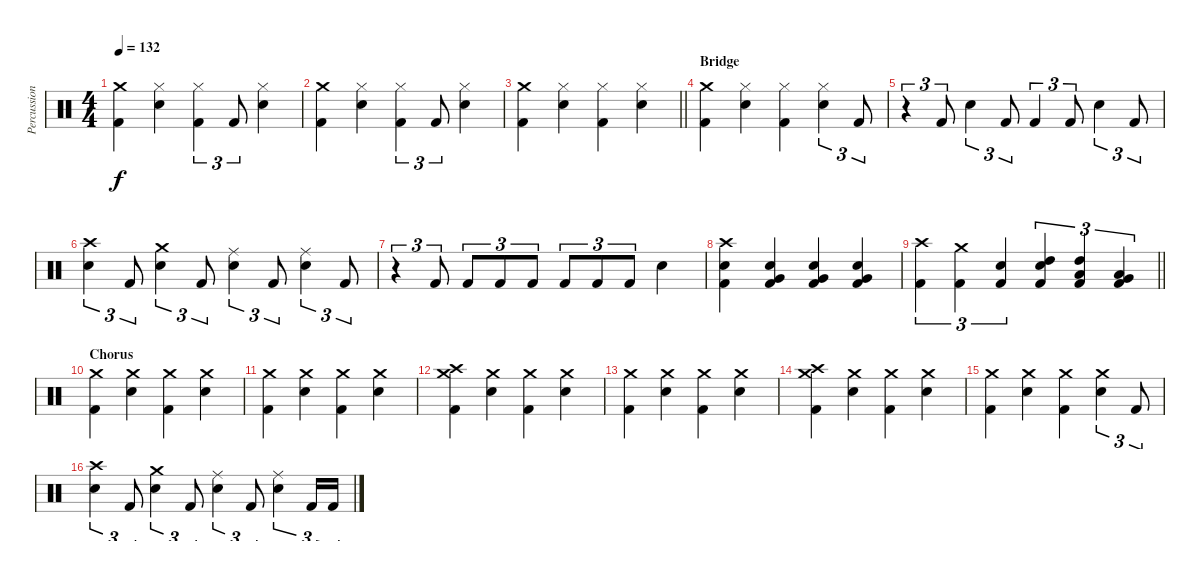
\track ("Percussion" "Percussion") {instrument percussion}
\staff {score}
\articulation defaults
\ts (4 4)
\tempo 132
\clef neutral
\ks c
("Crash medium (hit)" "Kick (hit) 2").4{dy f} ("Hi-Hat (closed)" "Snare (hit) 2").4 ("Hi-Hat (closed)" "Kick (hit) 2").4{tu (3 2)} "Kick (hit) 2".8{tu (3 2)} ("Hi-Hat (closed)" "Snare (hit) 2").4 |
("Crash medium (hit)" "Kick (hit) 2").4 ("Hi-Hat (closed)" "Snare (hit) 2").4 ("Hi-Hat (closed)" "Kick (hit) 2").4{tu (3 2)} "Kick (hit) 2".8{tu (3 2)} ("Hi-Hat (closed)" "Snare (hit) 2").4 |
\barLineRight lightlight
("Crash medium (hit)" "Kick (hit) 2").4 ("Hi-Hat (closed)" "Snare (hit) 2").4 ("Hi-Hat (closed)" "Kick (hit) 2").4 ("Hi-Hat (closed)" "Snare (hit) 2").4 |
\section ("" "Bridge")
("Crash medium (hit)" "Kick (hit) 2").4 ("Hi-Hat (closed)" "Snare (hit) 2").4 ("Hi-Hat (closed)" "Kick (hit) 2").4 ("Hi-Hat (closed)" "Snare (hit) 2").4{tu (3 2)} "Kick (hit) 2".8{tu (3 2)} |
r.4{tu (3 2)} "Kick (hit) 2".8{tu (3 2)} "Snare (hit) 2".4{tu (3 2)} "Kick (hit) 2".8{tu (3 2)} "Kick (hit) 2".4{tu (3 2)} "Kick (hit) 2".8{tu (3 2)} "Snare (hit) 2".4{tu (3 2)} "Kick (hit) 2".8{tu (3 2)} |
("Crash high (hit)" "Snare (hit) 2").4{tu (3 2)} "Kick (hit) 2".8{tu (3 2)} ("Crash medium (hit)" "Snare (hit) 2").4{tu (3 2)} "Kick (hit) 2".8{tu (3 2)} ("Ride (middle)" "Snare (hit) 2").4{tu (3 2)} "Kick (hit) 2".8{tu (3 2)} ("Ride (middle)" "Snare (hit) 2").4{tu (3 2)} "Kick (hit) 2".8{tu (3 2)} |
r.4{tu (3 2)} "Kick (hit) 2".8{tu (3 2)} "Kick (hit) 2".8{tu (3 2)} "Kick (hit) 2".8{tu (3 2)} "Kick (hit) 2".8{tu (3 2)} "Kick (hit) 2".8{tu (3 2)} "Kick (hit) 2".8{tu (3 2)} "Kick (hit) 2".8{tu (3 2)} "Snare (hit) 2".4 |
("Crash high (hit)" "Snare (hit) 2" "Kick (hit) 2").4 ("Very Low Tom (hit)" "Snare (hit) 2" "Kick (hit) 2").4 ("Very Low Tom (hit)" "Snare (hit) 2" "Kick (hit) 2").4 ("Very Low Tom (hit)" "Snare (hit) 2" "Kick (hit) 2").4 |
\barLineRight lightlight
("Crash high (hit)" "Kick (hit) 2").4{tu (3 2)} ("Crash medium (hit)" "Kick (hit) 2").4{tu (3 2)} ("Snare (hit) 2" "Kick (hit) 2").4{tu (3 2)} ("High Tom (hit)" "Snare (hit) 2" "Kick (hit) 2").4{tu (3 2)} ("Low Tom (hit)" "High Tom (hit)" "Kick (hit) 2").4{tu (3 2)} ("Very Low Tom (hit)" "Low Tom (hit)" "Kick (hit) 2").4{tu (3 2)} |
\section ("" "Chorus")
("Crash medium (hit)" "Kick (hit) 2").4 ("Crash medium (hit)" "Snare (hit) 2").4 ("Crash medium (hit)" "Kick (hit) 2").4 ("Crash medium (hit)" "Snare (hit) 2").4 |
("Crash medium (hit)" "Kick (hit) 2").4 ("Crash medium (hit)" "Snare (hit) 2").4 ("Crash medium (hit)" "Kick (hit) 2").4 ("Crash medium (hit)" "Snare (hit) 2").4 |
("Crash medium (hit)" "Crash high (hit)" "Kick (hit) 2").4 ("Crash medium (hit)" "Snare (hit) 2").4 ("Crash medium (hit)" "Kick (hit) 2").4 ("Crash medium (hit)" "Snare (hit) 2").4 |
("Crash medium (hit)" "Kick (hit) 2").4 ("Crash medium (hit)" "Snare (hit) 2").4 ("Crash medium (hit)" "Kick (hit) 2").4 ("Crash medium (hit)" "Snare (hit) 2").4 |
("Crash medium (hit)" "Crash high (hit)" "Kick (hit) 2").4 ("Crash medium (hit)" "Snare (hit) 2").4 ("Crash medium (hit)" "Kick (hit) 2").4 ("Crash medium (hit)" "Snare (hit) 2").4 |
("Crash medium (hit)" "Kick (hit) 2").4 ("Crash medium (hit)" "Snare (hit) 2").4 ("Crash medium (hit)" "Kick (hit) 2").4 ("Crash medium (hit)" "Snare (hit) 2").4{tu (3 2)} "Kick (hit) 2".8{tu (3 2)} |
("Crash high (hit)" "Snare (hit) 2").4{tu (3 2)} "Kick (hit) 2".8{tu (3 2)} ("Crash medium (hit)" "Snare (hit) 2").4{tu (3 2)} "Kick (hit) 2".8{tu (3 2)} ("Ride (middle)" "Snare (hit) 2").4{tu (3 2)} "Kick (hit) 2".8{tu (3 2)} ("Ride (middle)" "Snare (hit) 2").4{tu (3 2)} "Kick (hit) 2".16{tu (3 2)} "Kick (hit) 2".16{tu (3 2)}
